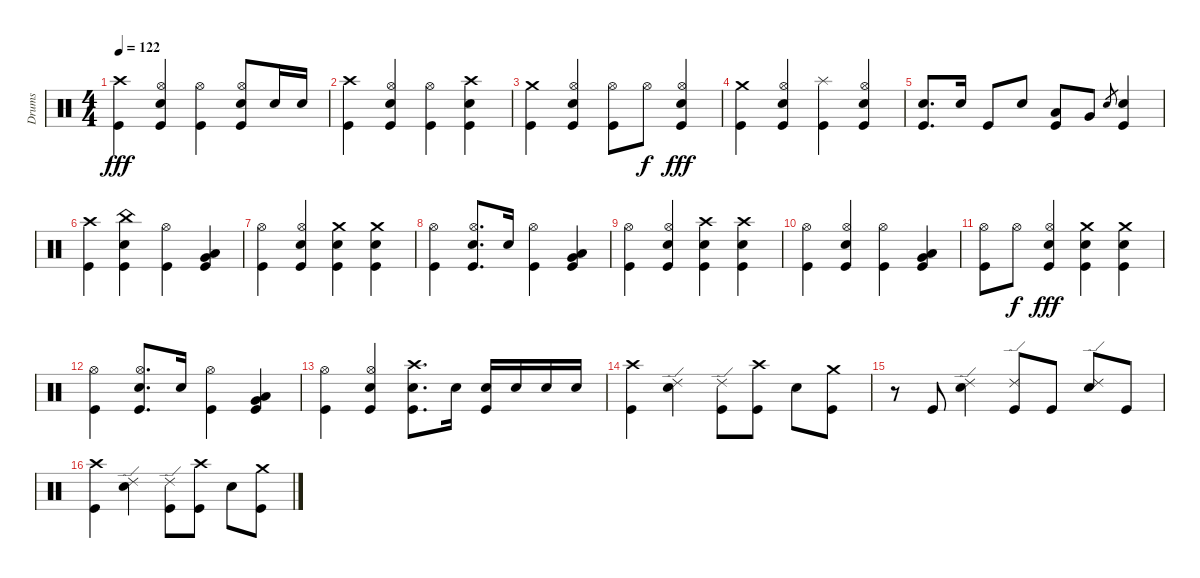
\track ("Drums" "Drums") {instrument percussion}
\staff {score}
\articulation defaults
\ts (4 4)
\tempo 122
\clef neutral
\ks c
("Crash high (hit)" "Kick (hit)").4{dy fff} ("Hi-Hat (open)" "Snare (hit) 2" "Kick (hit)").4 ("Hi-Hat (open)" "Kick (hit)").4 ("Hi-Hat (open)" "Snare (hit) 2" "Kick (hit)").8 "Snare (hit) 2".16 "Snare (hit) 2".16 |
("Crash high (hit)" "Kick (hit)").4 ("Hi-Hat (open)" "Snare (hit) 2" "Kick (hit)").4 ("Hi-Hat (open)" "Kick (hit)").4 ("Crash high (hit)" "Snare (hit) 2" "Kick (hit)").4 |
("Crash medium (hit)" "Kick (hit)").4 ("Hi-Hat (open)" "Snare (hit) 2" "Kick (hit)").4 ("Hi-Hat (open)" "Kick (hit)").8 "Hi-Hat (open)".8{dy f} ("Hi-Hat (open)" "Snare (hit) 2" "Kick (hit)").4{dy fff} |
("Crash medium (hit)" "Kick (hit)").4 ("Hi-Hat (open)" "Snare (hit) 2" "Kick (hit)").4 ("Splash (hit)" "Kick (hit)").4 ("Hi-Hat (open)" "Snare (hit) 2" "Kick (hit)").4 |
("Snare (hit) 2" "Kick (hit)").8{d} "Snare (hit) 2".16 "Kick (hit)".8 "Snare (hit) 2".8 ("Low Tom (hit)" "Kick (hit)").8 "Very Low Tom (hit)".8 "Snare (hit) 2".8{gr} ("Snare (hit) 2" "Kick (hit)").4 |
("Crash high (hit)" "Kick (hit)").4 ("China (hit)" "Snare (hit) 2" "Kick (hit)").4 ("Hi-Hat (open)" "Kick (hit)").4 ("Low Tom (hit)" "Very Low Tom (hit)" "Kick (hit)").4 |
("Hi-Hat (open)" "Kick (hit)").4 ("Hi-Hat (open)" "Snare (hit) 2" "Kick (hit)").4 ("Crash medium (hit)" "Snare (hit) 2" "Kick (hit)").4 ("Crash medium (hit)" "Snare (hit) 2" "Kick (hit)").4 |
("Hi-Hat (open)" "Kick (hit)").4 ("Hi-Hat (open)" "Snare (hit) 2" "Kick (hit)").8{d} "Snare (hit) 2".16 ("Hi-Hat (open)" "Kick (hit)").4 ("Low Tom (hit)" "Very Low Tom (hit)" "Kick (hit)").4 |
("Hi-Hat (open)" "Kick (hit)").4 ("Hi-Hat (open)" "Snare (hit) 2" "Kick (hit)").4 ("Crash high (hit)" "Snare (hit) 2" "Kick (hit)").4 ("Crash high (hit)" "Snare (hit) 2" "Kick (hit)").4 |
("Hi-Hat (open)" "Kick (hit)").4 ("Hi-Hat (open)" "Snare (hit) 2" "Kick (hit)").4 ("Hi-Hat (open)" "Kick (hit)").4 ("Low Tom (hit)" "Very Low Tom (hit)" "Kick (hit)").4 |
("Hi-Hat (open)" "Kick (hit)").8 "Hi-Hat (open)".8{dy f} ("Hi-Hat (open)" "Snare (hit) 2" "Kick (hit)").4{dy fff} ("Crash medium (hit)" "Snare (hit) 2" "Kick (hit)").4 ("Crash medium (hit)" "Snare (hit) 2" "Kick (hit)").4 |
("Hi-Hat (open)" "Kick (hit)").4 ("Hi-Hat (open)" "Snare (hit) 2" "Kick (hit)").8{d} "Snare (hit) 2".16 ("Hi-Hat (open)" "Kick (hit)").4 ("Low Tom (hit)" "Very Low Tom (hit)" "Kick (hit)").4 |
("Hi-Hat (open)" "Kick (hit)").4 ("Hi-Hat (open)" "Snare (hit) 2" "Kick (hit)").4 ("Crash high (hit)" "Snare (hit) 2" "Kick (hit)").8{d} "Snare (hit) 2".16 ("Snare (hit) 2" "Kick (hit)").16 "Snare (hit) 2".16 "Snare (hit) 2".16 "Snare (hit) 2".16 |
("Crash high (hit)" "Kick (hit)").4 ("Ride (edge) 2" "Snare (hit) 2").4 ("Ride (edge) 2" "Kick (hit)").8 ("Crash high (hit)" "Kick (hit)").8 "Snare (hit) 2".8 ("Crash medium (hit)" "Kick (hit)").8 |
r.8 "Kick (hit)".8 ("Ride (edge) 2" "Snare (hit) 2").4 ("Ride (edge) 2" "Kick (hit)").8 "Kick (hit)".8 ("Ride (edge) 2" "Snare (hit) 2").8 "Kick (hit)".8 |
("Crash high (hit)" "Kick (hit)").4 ("Ride (edge) 2" "Snare (hit) 2").4 ("Ride (edge) 2" "Kick (hit)").8 ("Crash high (hit)" "Kick (hit)").8 "Snare (hit) 2".8 ("Crash medium (hit)" "Kick (hit)").8
